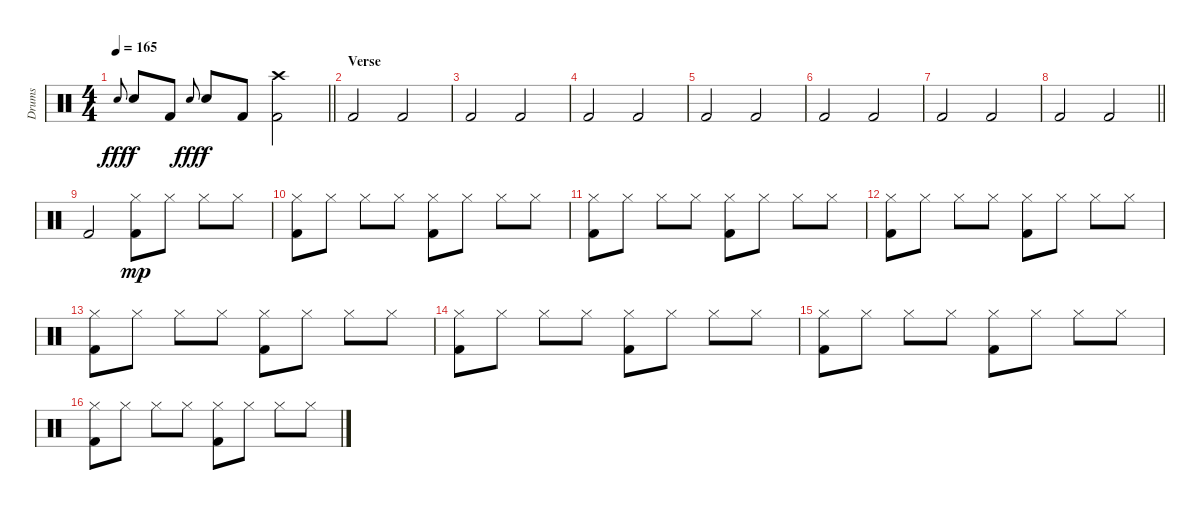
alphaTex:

\track ("Drums" "Drums") {instrument percussion}
\staff {score}
\articulation defaults
\ts (4 4)
\tempo 165
\clef neutral
\barLineRight lightlight
\ks c "Electric Snare (hit)".8{gr onbeat dy fff} "Electric Snare (hit)".8{dy f} "Kick (hit) 2".8 "Electric Snare (hit)".8{gr onbeat dy fff} "Electric Snare (hit)".8{dy f} "Kick (hit) 2".8
("Crash high (hit)" "Kick (hit) 2").2 |
\section ("" "Verse")
"Kick (hit) 2".2 "Kick (hit) 2".2 |
"Kick (hit) 2".2 "Kick (hit) 2".2 |
"Kick (hit) 2".2 "Kick (hit) 2".2 |
"Kick (hit) 2".2 "Kick (hit) 2".2 |
"Kick (hit) 2".2 "Kick (hit) 2".2 |
"Kick (hit) 2".2 "Kick (hit) 2".2 |
\barLineRight lightlight "Kick (hit) 2".2 "Kick (hit) 2".2
|
"Kick (hit) 2".2 ("Hi-Hat (closed)" "Kick (hit) 2").8{dy mp} "Hi-Hat (closed)".8 "Hi-Hat (closed)".8 "Hi-Hat (closed)".8 |
("Hi-Hat (closed)" "Kick (hit) 2").8 "Hi-Hat (closed)".8 "Hi-Hat (closed)".8 "Hi-Hat (closed)".8 ("Hi-Hat (closed)" "Kick (hit) 2").8 "Hi-Hat (closed)".8 "Hi-Hat (closed)".8 "Hi-Hat (closed)".8 |
("Hi-Hat (closed)" "Kick (hit) 2").8 "Hi-Hat (closed)".8 "Hi-Hat (closed)".8 "Hi-Hat (closed)".8 ("Hi-Hat (closed)" "Kick (hit) 2").8 "Hi-Hat (closed)".8 "Hi-Hat (closed)".8 "Hi-Hat (closed)".8 |
("Hi-Hat (closed)" "Kick (hit) 2").8 "Hi-Hat (closed)".8 "Hi-Hat (closed)".8 "Hi-Hat (closed)".8 ("Hi-Hat (closed)" "Kick (hit) 2").8 "Hi-Hat (closed)".8 "Hi-Hat (closed)".8 "Hi-Hat (closed)".8 |
("Hi-Hat (closed)" "Kick (hit) 2").8 "Hi-Hat (closed)".8 "Hi-Hat (closed)".8 "Hi-Hat (closed)".8 ("Hi-Hat (closed)" "Kick (hit) 2").8 "Hi-Hat (closed)".8 "Hi-Hat (closed)".8 "Hi-Hat (closed)".8 |
("Hi-Hat (closed)" "Kick (hit) 2").8 "Hi-Hat (closed)".8 "Hi-Hat (closed)".8 "Hi-Hat (closed)".8 ("Hi-Hat (closed)" "Kick (hit) 2").8 "Hi-Hat (closed)".8 "Hi-Hat (closed)".8 "Hi-Hat (closed)".8 |
("Hi-Hat (closed)" "Kick (hit) 2").8 "Hi-Hat (closed)".8 "Hi-Hat (closed)".8 "Hi-Hat (closed)".8 ("Hi-Hat (closed)" "Kick (hit) 2").8 "Hi-Hat (closed)".8 "Hi-Hat (closed)".8 "Hi-Hat (closed)".8 |
("Hi-Hat (closed)" "Kick (hit) 2").8 "Hi-Hat (closed)".8 "Hi-Hat (closed)".8 "Hi-Hat (closed)".8 ("Hi-Hat (closed)" "Kick (hit) 2").8 "Hi-Hat (closed)".8 "Hi-Hat (closed)".8 "Hi-Hat (closed)".8
